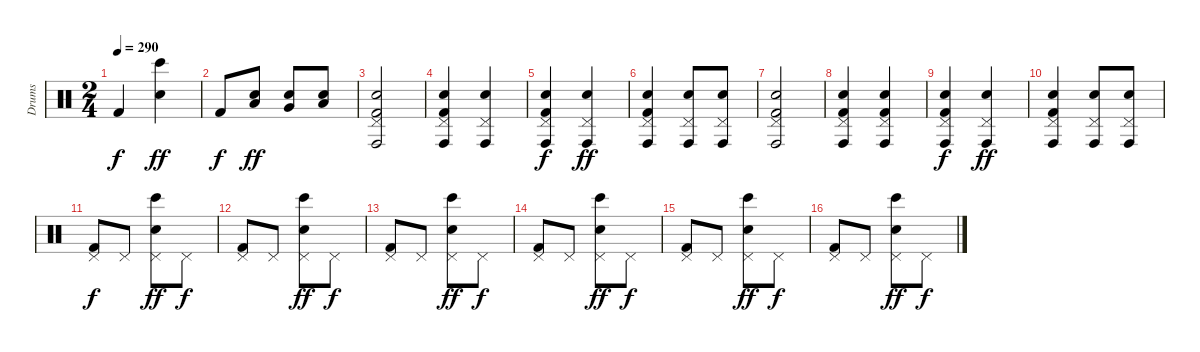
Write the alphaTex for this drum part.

\track ("Drums" "Drums") {instrument percussion}
\staff {score}
\articulation defaults
\ts (2 4)
\tempo 290
\clef neutral
\ks c "Kick (hit) 2".4{dy f}
("Bongo High (hit)" "Electric Snare (hit)").4{dy ff} |
"Kick (hit) 2".8{dy f} ("Low Tom (hit)" "Electric Snare (hit)").8{dy ff} ("Very Low Tom (hit)" "Electric Snare (hit)").8 ("Low Floor Tom (hit)" "Electric Snare (hit)").8 |
("Pedal Hi-Hat (hit)" "Conga high (hit)" "Electric Snare (hit)" "Kick (hit) 2").2 |
("Pedal Hi-Hat (hit)" "Conga high (hit)" "Electric Snare (hit)" "Kick (hit) 2").4 ("Pedal Hi-Hat (hit)" "Conga high (hit)" "Electric Snare (hit)").4 |
("Pedal Hi-Hat (hit)" "Conga high (hit)" "Electric Snare (hit)" "Kick (hit) 2").4{dy f} ("Pedal Hi-Hat (hit)" "Conga high (hit)" "Electric Snare (hit)").4{dy ff} |
("Pedal Hi-Hat (hit)" "Conga high (hit)" "Electric Snare (hit)" "Kick (hit) 2").4 ("Pedal Hi-Hat (hit)" "Conga high (hit)" "Electric Snare (hit)").8 ("Pedal Hi-Hat (hit)" "Conga high (hit)" "Electric Snare (hit)").8 |
("Pedal Hi-Hat (hit)" "Conga high (hit)" "Electric Snare (hit)" "Kick (hit) 2").2 |
("Pedal Hi-Hat (hit)" "Conga high (hit)" "Electric Snare (hit)" "Kick (hit) 2").4 ("Pedal Hi-Hat (hit)" "Conga high (hit)" "Electric Snare (hit)" "Kick (hit) 2").4 |
("Pedal Hi-Hat (hit)" "Conga high (hit)" "Electric Snare (hit)" "Kick (hit) 2").4{dy f} ("Pedal Hi-Hat (hit)" "Conga high (hit)" "Electric Snare (hit)").4{dy ff} |
("Pedal Hi-Hat (hit)" "Conga high (hit)" "Electric Snare (hit)" "Kick (hit) 2").4 ("Pedal Hi-Hat (hit)" "Conga high (hit)" "Electric Snare (hit)").8 ("Pedal Hi-Hat (hit)" "Conga high (hit)" "Electric Snare (hit)").8 |
("Pedal Hi-Hat (hit)" "Kick (hit) 2").8{dy f} "Pedal Hi-Hat (hit)".8 ("Pedal Hi-Hat (hit)" "Bongo High (hit)" "Electric Snare (hit)").8{dy ff} "Pedal Hi-Hat (hit)".8{dy f} |
("Pedal Hi-Hat (hit)" "Kick (hit) 2").8 "Pedal Hi-Hat (hit)".8 ("Pedal Hi-Hat (hit)" "Bongo High (hit)" "Electric Snare (hit)").8{dy ff} "Pedal Hi-Hat (hit)".8{dy f} |
("Pedal Hi-Hat (hit)" "Kick (hit) 2").8 "Pedal Hi-Hat (hit)".8 ("Pedal Hi-Hat (hit)" "Bongo High (hit)" "Electric Snare (hit)").8{dy ff} "Pedal Hi-Hat (hit)".8{dy f} |
("Pedal Hi-Hat (hit)" "Kick (hit) 2").8 "Pedal Hi-Hat (hit)".8 ("Pedal Hi-Hat (hit)" "Bongo High (hit)" "Electric Snare (hit)").8{dy ff} "Pedal Hi-Hat (hit)".8{dy f} |
("Pedal Hi-Hat (hit)" "Kick (hit) 2").8 "Pedal Hi-Hat (hit)".8 ("Pedal Hi-Hat (hit)" "Bongo High (hit)" "Electric Snare (hit)").8{dy ff} "Pedal Hi-Hat (hit)".8{dy f} |
("Pedal Hi-Hat (hit)" "Kick (hit) 2").8 "Pedal Hi-Hat (hit)".8 ("Pedal Hi-Hat (hit)" "Bongo High (hit)" "Electric Snare (hit)").8{dy ff} "Pedal Hi-Hat (hit)".8{dy f}
